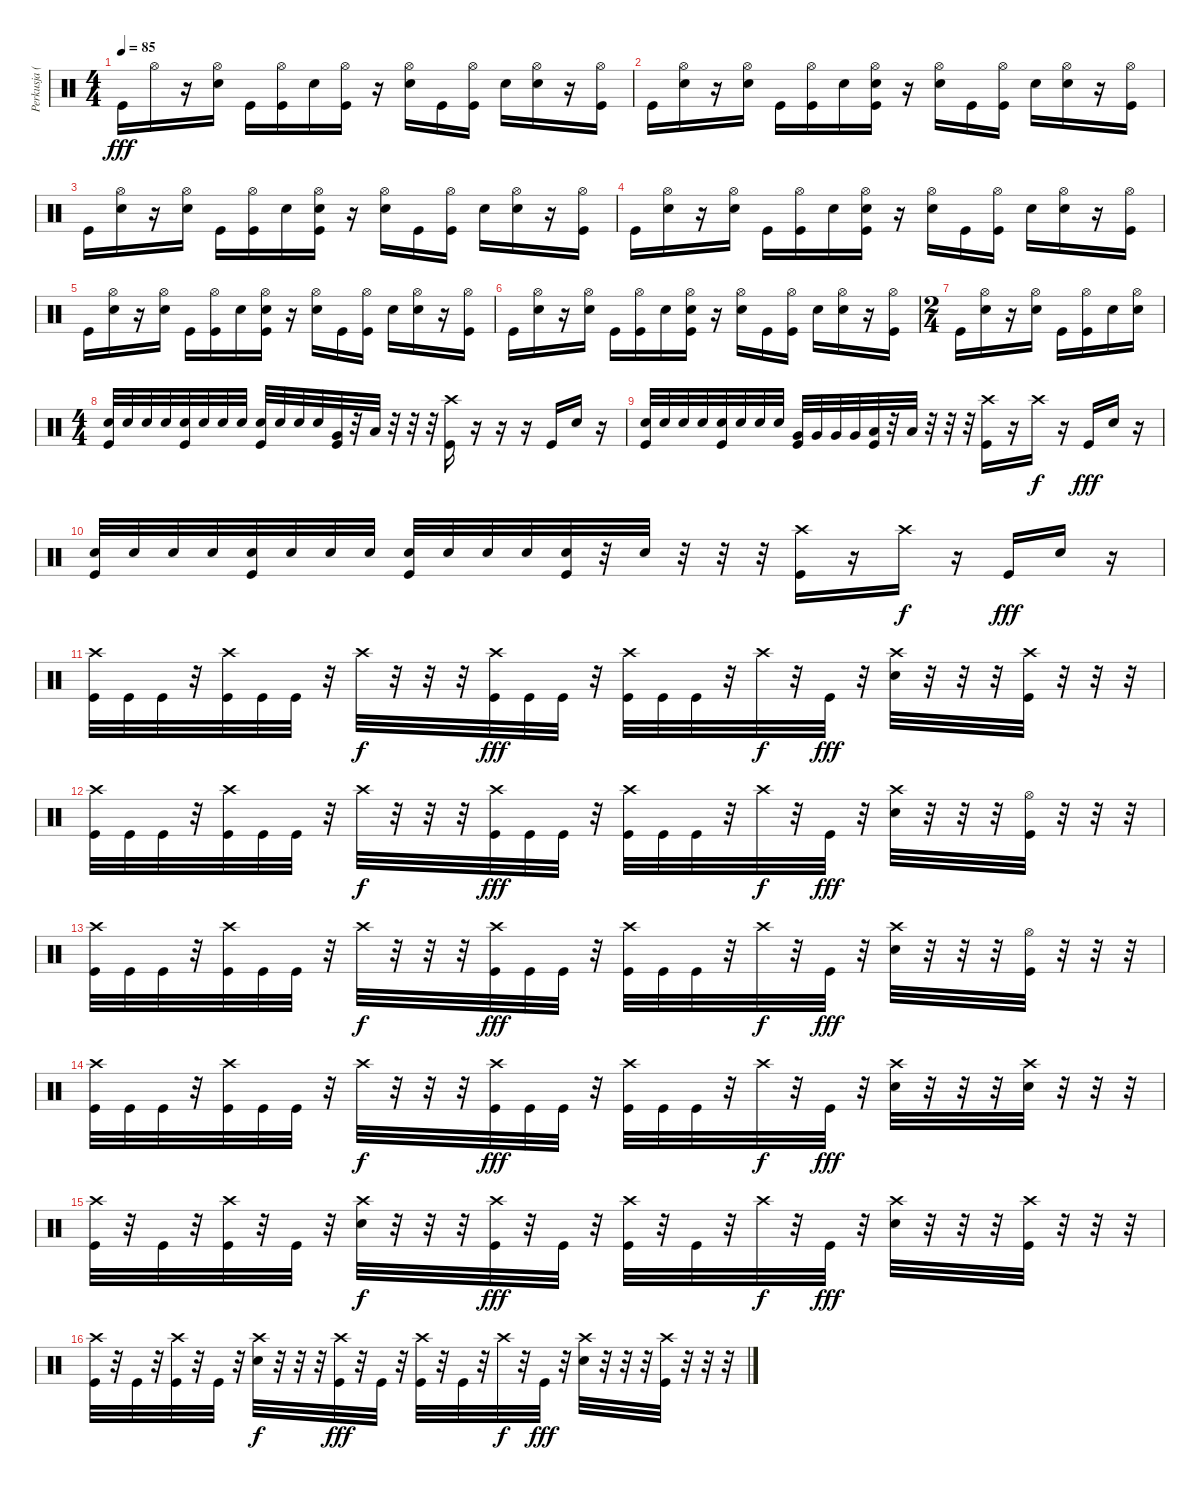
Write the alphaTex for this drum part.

\track ("Perkusja (by kucharz89)" "Perkusja (") {instrument percussion}
\staff {score}
\articulation defaults
\ts (4 4)
\tempo 85
\clef neutral
\ks c "Kick (hit)".16{dy fff} "Hi-Hat (open)".16
r.16 ("Hi-Hat (open)" "Electric Snare (hit)").16 "Kick (hit)".16 ("Hi-Hat (open)" "Kick (hit)").16 "Electric Snare (hit)".16 ("Hi-Hat (open)" "Kick (hit)").16 r.16 ("Hi-Hat (open)" "Electric Snare (hit)").16 "Kick (hit)".16 ("Hi-Hat (open)" "Kick (hit)").16 "Electric Snare (hit)".16 ("Hi-Hat (open)" "Electric Snare (hit)").16 r.16 ("Hi-Hat (open)" "Kick (hit)").16 |
"Kick (hit)".16 ("Hi-Hat (open)" "Electric Snare (hit)").16 r.16 ("Hi-Hat (open)" "Electric Snare (hit)").16 "Kick (hit)".16 ("Hi-Hat (open)" "Kick (hit)").16 "Electric Snare (hit)".16 ("Hi-Hat (open)" "Electric Snare (hit)" "Kick (hit)").16 r.16 ("Hi-Hat (open)" "Electric Snare (hit)").16 "Kick (hit)".16 ("Hi-Hat (open)" "Kick (hit)").16 "Electric Snare (hit)".16 ("Hi-Hat (open)" "Electric Snare (hit)").16 r.16 ("Hi-Hat (open)" "Kick (hit)").16 |
"Kick (hit)".16 ("Hi-Hat (open)" "Electric Snare (hit)").16 r.16 ("Hi-Hat (open)" "Electric Snare (hit)").16 "Kick (hit)".16 ("Hi-Hat (open)" "Kick (hit)").16 "Electric Snare (hit)".16 ("Hi-Hat (open)" "Electric Snare (hit)" "Kick (hit)").16 r.16 ("Hi-Hat (open)" "Electric Snare (hit)").16 "Kick (hit)".16 ("Hi-Hat (open)" "Kick (hit)").16 "Electric Snare (hit)".16 ("Hi-Hat (open)" "Electric Snare (hit)").16 r.16 ("Hi-Hat (open)" "Kick (hit)").16 |
"Kick (hit)".16 ("Hi-Hat (open)" "Electric Snare (hit)").16 r.16 ("Hi-Hat (open)" "Electric Snare (hit)").16 "Kick (hit)".16 ("Hi-Hat (open)" "Kick (hit)").16 "Electric Snare (hit)".16 ("Hi-Hat (open)" "Electric Snare (hit)" "Kick (hit)").16 r.16 ("Hi-Hat (open)" "Electric Snare (hit)").16 "Kick (hit)".16 ("Hi-Hat (open)" "Kick (hit)").16 "Electric Snare (hit)".16 ("Hi-Hat (open)" "Electric Snare (hit)").16 r.16 ("Hi-Hat (open)" "Kick (hit)").16 |
"Kick (hit)".16 ("Hi-Hat (open)" "Electric Snare (hit)").16 r.16 ("Hi-Hat (open)" "Electric Snare (hit)").16 "Kick (hit)".16 ("Hi-Hat (open)" "Kick (hit)").16 "Electric Snare (hit)".16 ("Hi-Hat (open)" "Electric Snare (hit)" "Kick (hit)").16 r.16 ("Hi-Hat (open)" "Electric Snare (hit)").16 "Kick (hit)".16 ("Hi-Hat (open)" "Kick (hit)").16 "Electric Snare (hit)".16 ("Hi-Hat (open)" "Electric Snare (hit)").16 r.16 ("Hi-Hat (open)" "Kick (hit)").16 |
"Kick (hit)".16 ("Hi-Hat (open)" "Electric Snare (hit)").16 r.16 ("Hi-Hat (open)" "Electric Snare (hit)").16 "Kick (hit)".16 ("Hi-Hat (open)" "Kick (hit)").16 "Electric Snare (hit)".16 ("Hi-Hat (open)" "Electric Snare (hit)" "Kick (hit)").16 r.16 ("Hi-Hat (open)" "Electric Snare (hit)").16 "Kick (hit)".16 ("Hi-Hat (open)" "Kick (hit)").16 "Electric Snare (hit)".16 ("Hi-Hat (open)" "Electric Snare (hit)").16 r.16 ("Hi-Hat (open)" "Kick (hit)").16 |
\ts (2 4)
"Kick (hit)".16 ("Hi-Hat (open)" "Electric Snare (hit)").16 r.16 ("Hi-Hat (open)" "Electric Snare (hit)").16 "Kick (hit)".16 ("Hi-Hat (open)" "Kick (hit)").16 "Electric Snare (hit)".16 ("Hi-Hat (open)" "Electric Snare (hit)").16 |
\ts (4 4)
("Electric Snare (hit)" "Kick (hit)").32 "Electric Snare (hit)".32 "Electric Snare (hit)".32 "Electric Snare (hit)".32 ("Electric Snare (hit)" "Kick (hit)").32 "Electric Snare (hit)".32 "Electric Snare (hit)".32 "Electric Snare (hit)".32 ("Electric Snare (hit)" "Kick (hit)").32 "Electric Snare (hit)".32 "Electric Snare (hit)".32 "Electric Snare (hit)".32 ("Very Low Tom (hit)" "Kick (hit)").32 r.32 "Low Tom (hit)".32 r.32 r.32 r.32 ("Crash high (hit)" "Kick (hit)").16 r.16 r.16 r.16 "Kick (hit)".16 "Electric Snare (hit)".16 r.16 |
("Electric Snare (hit)" "Kick (hit)").32 "Electric Snare (hit)".32 "Electric Snare (hit)".32 "Electric Snare (hit)".32 ("Electric Snare (hit)" "Kick (hit)").32 "Electric Snare (hit)".32 "Electric Snare (hit)".32 "Electric Snare (hit)".32 ("Very Low Tom (hit)" "Kick (hit)").32 "Very Low Tom (hit)".32 "Very Low Tom (hit)".32 "Very Low Tom (hit)".32 ("Low Floor Tom (hit)" "Kick (hit)").32 r.32 "Low Tom (hit)".32 r.32 r.32 r.32 ("Crash high (hit)" "Kick (hit)").16 r.16 "Crash high (hit)".16{dy f} r.16 "Kick (hit)".16{dy fff} "Electric Snare (hit)".16 r.16 |
("Electric Snare (hit)" "Kick (hit)").32 "Electric Snare (hit)".32 "Electric Snare (hit)".32 "Electric Snare (hit)".32 ("Electric Snare (hit)" "Kick (hit)").32 "Electric Snare (hit)".32 "Electric Snare (hit)".32 "Electric Snare (hit)".32 ("Electric Snare (hit)" "Kick (hit)").32 "Electric Snare (hit)".32 "Electric Snare (hit)".32 "Electric Snare (hit)".32 ("Electric Snare (hit)" "Kick (hit)").32 r.32 "Electric Snare (hit)".32 r.32 r.32 r.32 ("Crash high (hit)" "Kick (hit)").16 r.16 "Crash high (hit)".16{dy f} r.16 "Kick (hit)".16{dy fff} "Electric Snare (hit)".16 r.16 |
("Crash high (hit)" "Kick (hit)").32 "Kick (hit)".32 "Kick (hit)".32 r.32 ("Crash high (hit)" "Kick (hit)").32 "Kick (hit)".32 "Kick (hit)".32 r.32 "Crash high (hit)".32{dy f} r.32 r.32 r.32 ("Crash high (hit)" "Kick (hit)").32{dy fff} "Kick (hit)".32 "Kick (hit)".32 r.32 ("Crash high (hit)" "Kick (hit)").32 "Kick (hit)".32 "Kick (hit)".32 r.32 "Crash high (hit)".32{dy f} r.32 "Kick (hit)".32{dy fff} r.32 ("Crash high (hit)" "Electric Snare (hit)").32 r.32 r.32 r.32 ("Crash high (hit)" "Kick (hit)").32 r.32 r.32 r.32 |
("Crash high (hit)" "Kick (hit)").32 "Kick (hit)".32 "Kick (hit)".32 r.32 ("Crash high (hit)" "Kick (hit)").32 "Kick (hit)".32 "Kick (hit)".32 r.32 "Crash high (hit)".32{dy f} r.32 r.32 r.32 ("Crash high (hit)" "Kick (hit)").32{dy fff} "Kick (hit)".32 "Kick (hit)".32 r.32 ("Crash high (hit)" "Kick (hit)").32 "Kick (hit)".32 "Kick (hit)".32 r.32 "Crash high (hit)".32{dy f} r.32 "Kick (hit)".32{dy fff} r.32 ("Crash high (hit)" "Electric Snare (hit)").32 r.32 r.32 r.32 ("Hi-Hat (open)" "Kick (hit)").32 r.32 r.32 r.32 |
("Crash high (hit)" "Kick (hit)").32 "Kick (hit)".32 "Kick (hit)".32 r.32 ("Crash high (hit)" "Kick (hit)").32 "Kick (hit)".32 "Kick (hit)".32 r.32 "Crash high (hit)".32{dy f} r.32 r.32 r.32 ("Crash high (hit)" "Kick (hit)").32{dy fff} "Kick (hit)".32 "Kick (hit)".32 r.32 ("Crash high (hit)" "Kick (hit)").32 "Kick (hit)".32 "Kick (hit)".32 r.32 "Crash high (hit)".32{dy f} r.32 "Kick (hit)".32{dy fff} r.32 ("Crash high (hit)" "Electric Snare (hit)").32 r.32 r.32 r.32 ("Hi-Hat (open)" "Kick (hit)").32 r.32 r.32 r.32 |
("Crash high (hit)" "Kick (hit)").32 "Kick (hit)".32 "Kick (hit)".32 r.32 ("Crash high (hit)" "Kick (hit)").32 "Kick (hit)".32 "Kick (hit)".32 r.32 "Crash high (hit)".32{dy f} r.32 r.32 r.32 ("Crash high (hit)" "Kick (hit)").32{dy fff} "Kick (hit)".32 "Kick (hit)".32 r.32 ("Crash high (hit)" "Kick (hit)").32 "Kick (hit)".32 "Kick (hit)".32 r.32 "Crash high (hit)".32{dy f} r.32 "Kick (hit)".32{dy fff} r.32 ("Crash high (hit)" "Electric Snare (hit)").32 r.32 r.32 r.32 ("Crash high (hit)" "Electric Snare (hit)").32 r.32 r.32 r.32 |
("Crash high (hit)" "Kick (hit)").32 r.32 "Kick (hit)".32 r.32 ("Crash high (hit)" "Kick (hit)").32 r.32 "Kick (hit)".32 r.32 ("Crash high (hit)" "Electric Snare (hit)").32{dy f} r.32 r.32 r.32 ("Crash high (hit)" "Kick (hit)").32{dy fff} r.32 "Kick (hit)".32 r.32 ("Crash high (hit)" "Kick (hit)").32 r.32 "Kick (hit)".32 r.32 "Crash high (hit)".32{dy f} r.32 "Kick (hit)".32{dy fff} r.32 ("Crash high (hit)" "Electric Snare (hit)").32 r.32 r.32 r.32 ("Crash high (hit)" "Kick (hit)").32 r.32 r.32 r.32 |
("Crash high (hit)" "Kick (hit)").32 r.32 "Kick (hit)".32 r.32 ("Crash high (hit)" "Kick (hit)").32 r.32 "Kick (hit)".32 r.32 ("Crash high (hit)" "Electric Snare (hit)").32{dy f} r.32 r.32 r.32 ("Crash high (hit)" "Kick (hit)").32{dy fff} r.32 "Kick (hit)".32 r.32 ("Crash high (hit)" "Kick (hit)").32 r.32 "Kick (hit)".32 r.32 "Crash high (hit)".32{dy f} r.32 "Kick (hit)".32{dy fff} r.32 ("Crash high (hit)" "Electric Snare (hit)").32 r.32 r.32 r.32 ("Crash high (hit)" "Kick (hit)").32 r.32 r.32 r.32
